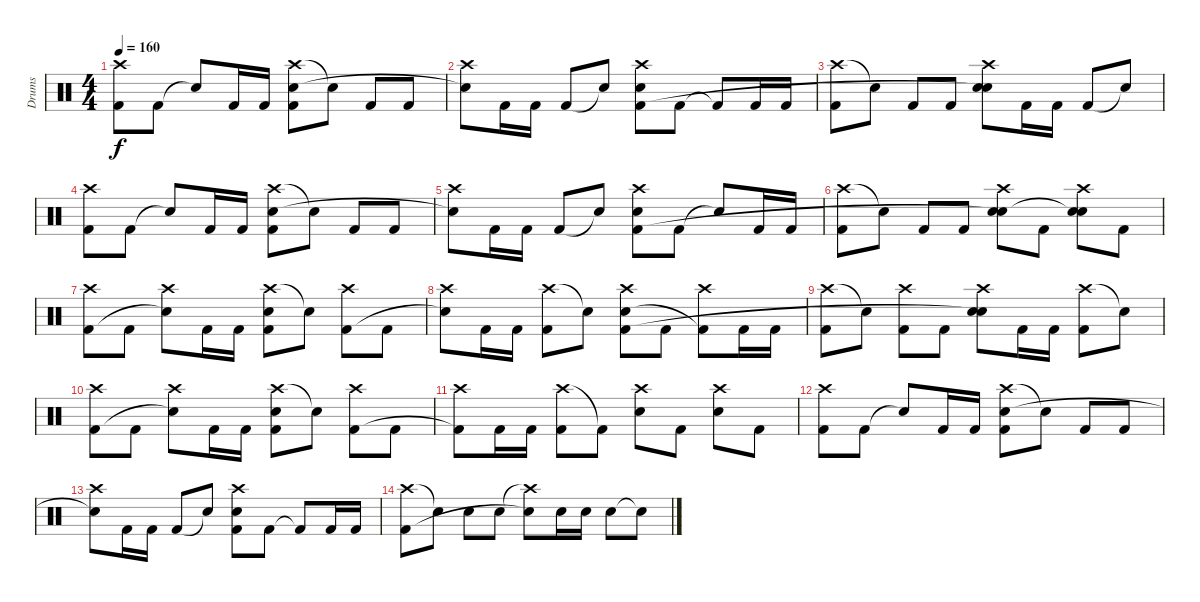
\track ("Drums" "Drums") {instrument percussion}
\staff {score}
\articulation defaults
\ts (4 4)
\tempo 160
\clef neutral
\ks c
("Crash high (hit)" "Kick (hit) 2").8{dy f} "Kick (hit) 2".8 "Snare (hit)"{t}.8 "Kick (hit) 2".16 "Kick (hit) 2".16 ("Crash high (hit)" "Electric Snare (hit)" "Kick (hit) 2").8 "Snare (hit)"{t}.8 "Kick (hit) 2".8 "Kick (hit) 2".8 |
("Crash high (hit)" "Snare (hit)"{t}).8 "Kick (hit) 2".16 "Kick (hit) 2".16 "Kick (hit) 2".8 "Snare (hit)"{t}.8 ("Crash high (hit)" "Electric Snare (hit)" "Kick (hit) 2").8 "Kick (hit) 2".8 "Kick (hit) 2"{t}.8 "Kick (hit) 2".16 "Kick (hit) 2".16 |
("Crash high (hit)" "Kick (hit) 2").8 "Snare (hit)"{t}.8 "Kick (hit) 2".8 "Kick (hit) 2".8 ("Crash high (hit)" "Electric Snare (hit)" "Snare (hit)"{t}).8 "Kick (hit) 2".16 "Kick (hit) 2".16 "Kick (hit) 2".8 "Snare (hit)"{t}.8 |
("Crash high (hit)" "Kick (hit) 2").8 "Kick (hit) 2".8 "Snare (hit)"{t}.8 "Kick (hit) 2".16 "Kick (hit) 2".16 ("Crash high (hit)" "Electric Snare (hit)" "Kick (hit) 2").8 "Snare (hit)"{t}.8 "Kick (hit) 2".8 "Kick (hit) 2".8 |
("Crash high (hit)" "Snare (hit)"{t}).8 "Kick (hit) 2".16 "Kick (hit) 2".16 "Kick (hit) 2".8 "Snare (hit)"{t}.8 ("Crash high (hit)" "Electric Snare (hit)" "Kick (hit) 2").8 "Kick (hit) 2".8 "Snare (hit)"{t}.8 "Kick (hit) 2".16 "Kick (hit) 2".16 |
("Crash high (hit)" "Kick (hit) 2").8 "Snare (hit)"{t}.8 "Kick (hit) 2".8 "Kick (hit) 2".8 ("Crash high (hit)" "Electric Snare (hit)" "Snare (hit)"{t}).8 "Kick (hit) 2".8 ("Crash high (hit)" "Electric Snare (hit)" "Snare (hit)"{t}).8 "Kick (hit) 2".8 |
("Crash high (hit)" "Kick (hit) 2").8 "Kick (hit) 2".8 ("Crash high (hit)" "Snare (hit)"{t}).8 "Kick (hit) 2".16 "Kick (hit) 2".16 ("Crash high (hit)" "Electric Snare (hit)" "Kick (hit) 2").8 "Snare (hit)"{t}.8 ("Crash high (hit)" "Kick (hit) 2").8 "Kick (hit) 2".8 |
("Crash high (hit)" "Snare (hit)"{t}).8 "Kick (hit) 2".16 "Kick (hit) 2".16 ("Crash high (hit)" "Kick (hit) 2").8 "Snare (hit)"{t}.8 ("Crash high (hit)" "Electric Snare (hit)" "Kick (hit) 2").8 "Kick (hit) 2".8 ("Crash high (hit)" "Kick (hit) 2"{t}).8 "Kick (hit) 2".16 "Kick (hit) 2".16 |
("Crash high (hit)" "Kick (hit) 2").8 "Snare (hit)"{t}.8 ("Crash high (hit)" "Kick (hit) 2").8 "Kick (hit) 2".8 ("Crash high (hit)" "Electric Snare (hit)" "Snare (hit)"{t}).8 "Kick (hit) 2".16 "Kick (hit) 2".16 ("Crash high (hit)" "Kick (hit) 2").8 "Snare (hit)"{t}.8 |
("Crash high (hit)" "Kick (hit) 2").8 "Kick (hit) 2".8 ("Crash high (hit)" "Snare (hit)"{t}).8 "Kick (hit) 2".16 "Kick (hit) 2".16 ("Crash high (hit)" "Electric Snare (hit)" "Kick (hit) 2").8 "Snare (hit)"{t}.8 ("Crash high (hit)" "Kick (hit) 2").8 "Kick (hit) 2".8 |
("Crash high (hit)" "Kick (hit) 2"{t}).8 "Kick (hit) 2".16 "Kick (hit) 2".16 ("Crash high (hit)" "Kick (hit) 2").8 "Kick (hit) 2"{t}.8 ("Crash high (hit)" "Electric Snare (hit)").8 "Kick (hit) 2".8 ("Crash high (hit)" "Electric Snare (hit)").8 "Kick (hit) 2".8 |
("Crash high (hit)" "Kick (hit) 2").8 "Kick (hit) 2".8 "Snare (hit)"{t}.8 "Kick (hit) 2".16 "Kick (hit) 2".16 ("Crash high (hit)" "Electric Snare (hit)" "Kick (hit) 2").8 "Snare (hit)"{t}.8 "Kick (hit) 2".8 "Kick (hit) 2".8 |
("Crash high (hit)" "Snare (hit)"{t}).8 "Kick (hit) 2".16 "Kick (hit) 2".16 "Kick (hit) 2".8 "Snare (hit)"{t}.8 ("Crash high (hit)" "Electric Snare (hit)" "Kick (hit) 2").8 "Kick (hit) 2".8 "Kick (hit) 2"{t}.8 "Kick (hit) 2".16 "Kick (hit) 2".16 |
("Crash high (hit)" "Kick (hit) 2").8 "Snare (hit)"{t}.8 "Electric Snare (hit)".8 "Electric Snare (hit)".8 ("Crash high (hit)"{t} "Snare (hit)"{t}).8 "Electric Snare (hit)".16 "Electric Snare (hit)".16 "Electric Snare (hit)".8 "Snare (hit)"{t}.8
